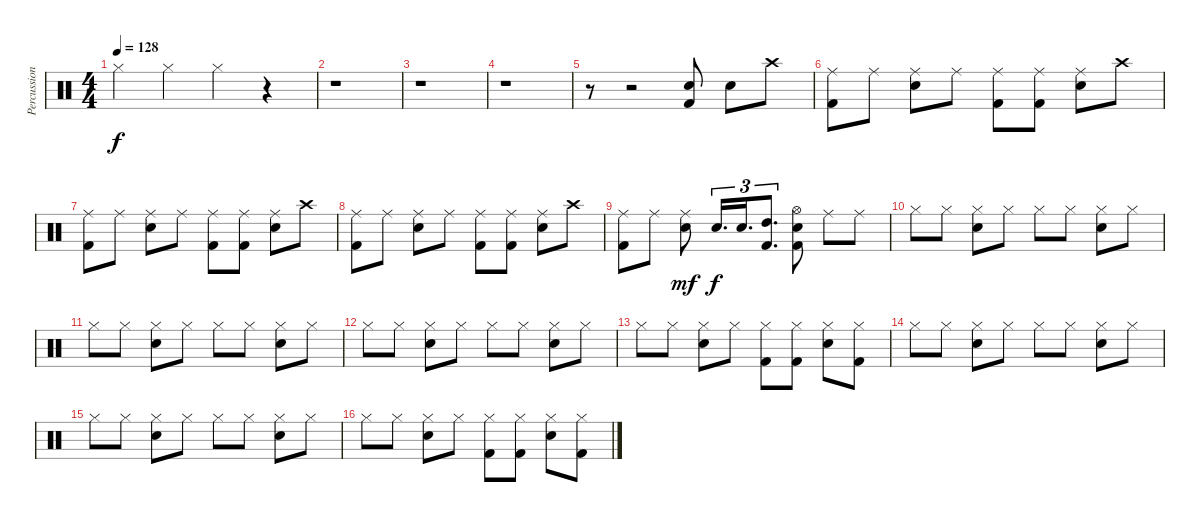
\track ("Percussion" "Percussion") {instrument percussion bank 10}
\staff {score}
\articulation defaults
\ts (4 4)
\tempo 128
\clef neutral
\ks c "Hi-Hat (closed)".4{dy f} "Hi-Hat (closed)".4 "Hi-Hat (closed)".4
r.4 |
r.1 |
r.1 |
r.1 |
r.8 r.2 ("Snare (hit) 2" "Kick (hit) 2").8 "Snare (hit) 2".8 "Crash high (hit)".8 |
("Ride (middle)" "Kick (hit) 2").8 "Ride (middle)".8 ("Ride (middle)" "Snare (hit) 2").8 "Ride (middle)".8 ("Ride (middle)" "Kick (hit) 2").8 ("Ride (middle)" "Kick (hit) 2").8 ("Ride (middle)" "Snare (hit) 2").8 "Crash high (hit)".8 |
("Ride (middle)" "Kick (hit) 2").8 "Ride (middle)".8 ("Ride (middle)" "Snare (hit) 2").8 "Ride (middle)".8 ("Ride (middle)" "Kick (hit) 2").8 ("Ride (middle)" "Kick (hit) 2").8 ("Ride (middle)" "Snare (hit) 2").8 "Crash high (hit)".8 |
("Ride (middle)" "Kick (hit) 2").8 "Ride (middle)".8 ("Ride (middle)" "Snare (hit) 2").8 "Ride (middle)".8 ("Ride (middle)" "Kick (hit) 2").8 ("Ride (middle)" "Kick (hit) 2").8 ("Ride (middle)" "Snare (hit) 2").8 "Crash high (hit)".8 |
("Ride (middle)" "Kick (hit) 2").8 "Ride (middle)".8 ("Ride (middle)" "Snare (hit) 2").8{dy mf} "Snare (hit) 2".16{d tu (3 2) dy f} "Snare (hit) 2".16{d tu (3 2)} ("High Tom (hit)" "Kick (hit) 2").8{d tu (3 2)} ("Hi-Hat (open)" "Snare (hit) 2" "Kick (hit) 2").8 "Ride (middle)".8 "Ride (middle)".8 |
"Hi-Hat (closed)".8 "Hi-Hat (closed)".8 ("Hi-Hat (closed)" "Snare (hit) 2").8 "Hi-Hat (closed)".8 "Hi-Hat (closed)".8 "Hi-Hat (closed)".8 ("Hi-Hat (closed)" "Snare (hit) 2").8 "Hi-Hat (closed)".8 |
"Hi-Hat (closed)".8 "Hi-Hat (closed)".8 ("Hi-Hat (closed)" "Snare (hit) 2").8 "Hi-Hat (closed)".8 "Hi-Hat (closed)".8 "Hi-Hat (closed)".8 ("Hi-Hat (closed)" "Snare (hit) 2").8 "Hi-Hat (closed)".8 |
"Hi-Hat (closed)".8 "Hi-Hat (closed)".8 ("Hi-Hat (closed)" "Snare (hit) 2").8 "Hi-Hat (closed)".8 "Hi-Hat (closed)".8 "Hi-Hat (closed)".8 ("Hi-Hat (closed)" "Snare (hit) 2").8 "Hi-Hat (closed)".8 |
"Hi-Hat (closed)".8 "Hi-Hat (closed)".8 ("Hi-Hat (closed)" "Snare (hit) 2").8 "Hi-Hat (closed)".8 ("Hi-Hat (closed)" "Kick (hit) 2").8 ("Hi-Hat (closed)" "Kick (hit) 2").8 ("Hi-Hat (closed)" "Snare (hit) 2").8 ("Hi-Hat (closed)" "Kick (hit) 2").8 |
"Hi-Hat (closed)".8 "Hi-Hat (closed)".8 ("Hi-Hat (closed)" "Snare (hit) 2").8 "Hi-Hat (closed)".8 "Hi-Hat (closed)".8 "Hi-Hat (closed)".8 ("Hi-Hat (closed)" "Snare (hit) 2").8 "Hi-Hat (closed)".8 |
"Hi-Hat (closed)".8 "Hi-Hat (closed)".8 ("Hi-Hat (closed)" "Snare (hit) 2").8 "Hi-Hat (closed)".8 "Hi-Hat (closed)".8 "Hi-Hat (closed)".8 ("Hi-Hat (closed)" "Snare (hit) 2").8 "Hi-Hat (closed)".8 |
"Hi-Hat (closed)".8 "Hi-Hat (closed)".8 ("Hi-Hat (closed)" "Snare (hit) 2").8 "Hi-Hat (closed)".8 ("Hi-Hat (closed)" "Kick (hit) 2").8 ("Hi-Hat (closed)" "Kick (hit) 2").8 ("Hi-Hat (closed)" "Snare (hit) 2").8 ("Hi-Hat (closed)" "Kick (hit) 2").8
